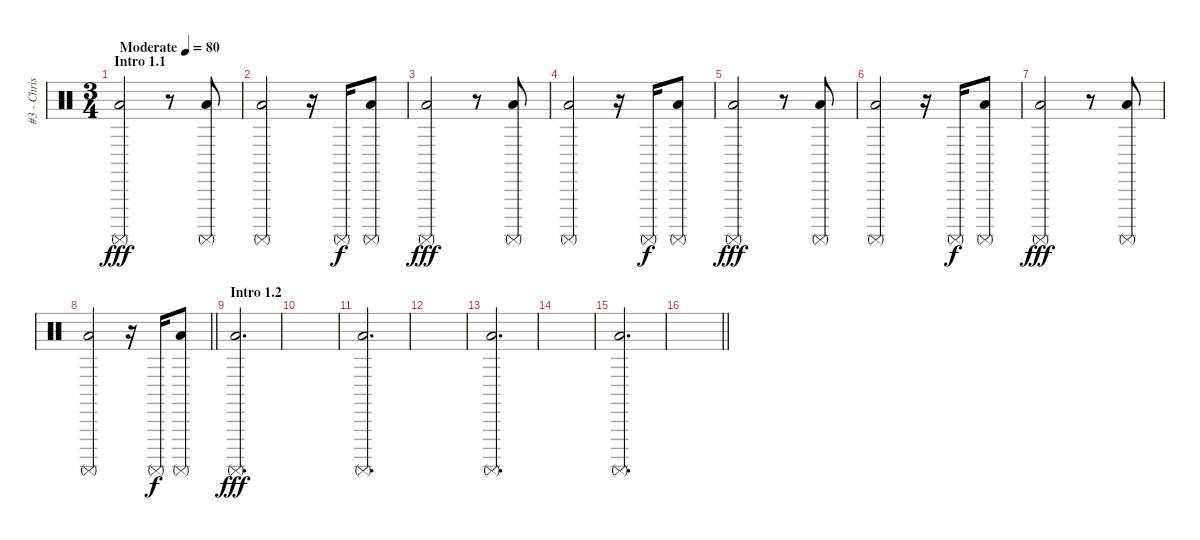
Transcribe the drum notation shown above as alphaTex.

\track ("#3 - Chris Fehn" "#3 - Chris") {instrument percussion}
\staff {score}
\articulation defaults
\ts (3 4)
\section ("" "Intro 1.1")
\tempo (80 "Moderate")
\clef neutral
\ks c
("Low Floor Tom (hit)" "Surdo (mute)").2{dy fff} r.8 ("Low Floor Tom (hit)" "Surdo (mute)").8 |
("Low Floor Tom (hit)" "Surdo (mute)").2 r.16 "Surdo (mute)".16{dy f} ("Low Floor Tom (hit)" "Surdo (mute)").8 |
("Low Floor Tom (hit)" "Surdo (mute)").2{dy fff} r.8 ("Low Floor Tom (hit)" "Surdo (mute)").8 |
("Low Floor Tom (hit)" "Surdo (mute)").2 r.16 "Surdo (mute)".16{dy f} ("Low Floor Tom (hit)" "Surdo (mute)").8 |
("Low Floor Tom (hit)" "Surdo (mute)").2{dy fff} r.8 ("Low Floor Tom (hit)" "Surdo (mute)").8 |
("Low Floor Tom (hit)" "Surdo (mute)").2 r.16 "Surdo (mute)".16{dy f} ("Low Floor Tom (hit)" "Surdo (mute)").8 |
("Low Floor Tom (hit)" "Surdo (mute)").2{dy fff} r.8 ("Low Floor Tom (hit)" "Surdo (mute)").8 |
\barLineRight lightlight
("Low Floor Tom (hit)" "Surdo (mute)").2 r.16 "Surdo (mute)".16{dy f} ("Low Floor Tom (hit)" "Surdo (mute)").8 |
\section ("" "Intro 1.2")
("Low Floor Tom (hit)" "Surdo (mute)").2{d dy fff volume 16} |
|
("Low Floor Tom (hit)" "Surdo (mute)").2{d} |
|
("Low Floor Tom (hit)" "Surdo (mute)").2{d} |
|
("Low Floor Tom (hit)" "Surdo (mute)").2{d} |
\barLineRight lightlight
